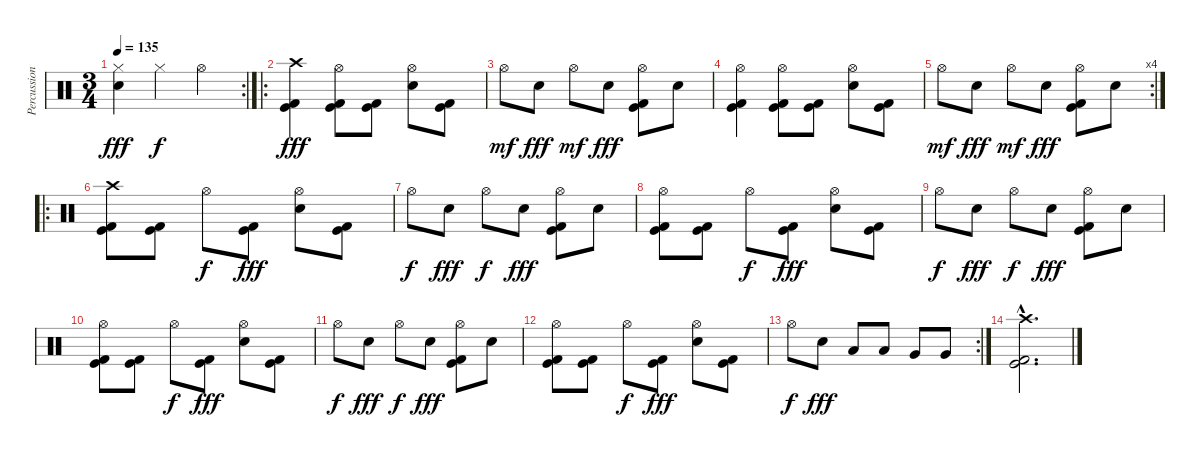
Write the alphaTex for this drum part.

\track ("Percussion" "Percussion") {instrument percussion}
\staff {score}
\articulation defaults
\rc 2
\ts (3 4)
\tempo 135
\clef neutral
\ks c
("Hi-Hat (closed)" "Electric Snare (hit)").4{dy fff} "Hi-Hat (closed)".4{dy f} "Hi-Hat (open)".4 |
\ro
("Crash high (hit)" "Kick (hit)" "Kick (hit) 2").4{dy fff} ("Hi-Hat (open)" "Kick (hit)" "Kick (hit) 2").8 ("Kick (hit)" "Kick (hit) 2").8 ("Hi-Hat (open)" "Electric Snare (hit)").8 ("Kick (hit)" "Kick (hit) 2").8 |
"Hi-Hat (open)".8{dy mf} "Electric Snare (hit)".8{dy fff} "Hi-Hat (open)".8{dy mf} "Electric Snare (hit)".8{dy fff} ("Hi-Hat (open)" "Kick (hit)" "Kick (hit) 2").8 "Electric Snare (hit)".8 |
("Hi-Hat (open)" "Kick (hit)" "Kick (hit) 2").4 ("Hi-Hat (open)" "Kick (hit)" "Kick (hit) 2").8 ("Kick (hit)" "Kick (hit) 2").8 ("Hi-Hat (open)" "Electric Snare (hit)").8 ("Kick (hit)" "Kick (hit) 2").8 |
\rc 4 "Hi-Hat (open)".8{dy mf} "Electric Snare (hit)".8{dy fff} "Hi-Hat (open)".8{dy mf} "Electric Snare (hit)".8{dy fff}
("Hi-Hat (open)" "Kick (hit)" "Kick (hit) 2").8 "Electric Snare (hit)".8 |
\ro
("Crash high (hit)" "Kick (hit)" "Kick (hit) 2").8 ("Kick (hit)" "Kick (hit) 2").8 "Hi-Hat (open)".8{dy f} ("Kick (hit)" "Kick (hit) 2").8{dy fff} ("Hi-Hat (open)" "Electric Snare (hit)").8 ("Kick (hit)" "Kick (hit) 2").8 |
"Hi-Hat (open)".8{dy f} "Electric Snare (hit)".8{dy fff} "Hi-Hat (open)".8{dy f} "Electric Snare (hit)".8{dy fff} ("Hi-Hat (open)" "Kick (hit)" "Kick (hit) 2").8 "Electric Snare (hit)".8 |
("Hi-Hat (open)" "Kick (hit)" "Kick (hit) 2").8 ("Kick (hit)" "Kick (hit) 2").8 "Hi-Hat (open)".8{dy f} ("Kick (hit)" "Kick (hit) 2").8{dy fff} ("Hi-Hat (open)" "Electric Snare (hit)").8 ("Kick (hit)" "Kick (hit) 2").8 |
"Hi-Hat (open)".8{dy f} "Electric Snare (hit)".8{dy fff} "Hi-Hat (open)".8{dy f} "Electric Snare (hit)".8{dy fff} ("Hi-Hat (open)" "Kick (hit)" "Kick (hit) 2").8 "Electric Snare (hit)".8 |
("Hi-Hat (open)" "Kick (hit)" "Kick (hit) 2").8 ("Kick (hit)" "Kick (hit) 2").8 "Hi-Hat (open)".8{dy f} ("Kick (hit)" "Kick (hit) 2").8{dy fff} ("Hi-Hat (open)" "Electric Snare (hit)").8 ("Kick (hit)" "Kick (hit) 2").8 |
"Hi-Hat (open)".8{dy f} "Electric Snare (hit)".8{dy fff} "Hi-Hat (open)".8{dy f} "Electric Snare (hit)".8{dy fff} ("Hi-Hat (open)" "Kick (hit)" "Kick (hit) 2").8 "Electric Snare (hit)".8 |
("Hi-Hat (open)" "Kick (hit)" "Kick (hit) 2").8 ("Kick (hit)" "Kick (hit) 2").8 "Hi-Hat (open)".8{dy f} ("Kick (hit)" "Kick (hit) 2").8{dy fff} ("Hi-Hat (open)" "Electric Snare (hit)").8 ("Kick (hit)" "Kick (hit) 2").8 |
\rc 2 "Hi-Hat (open)".8{dy f} "Electric Snare (hit)".8{dy fff} "Low Tom (hit)".8 "Low Tom (hit)".8 "Very Low Tom (hit)".8 "Very Low Tom (hit)".8
|
("Crash high (hit)"{hac} "Kick (hit)"{hac} "Kick (hit) 2"{hac}).2{d}
